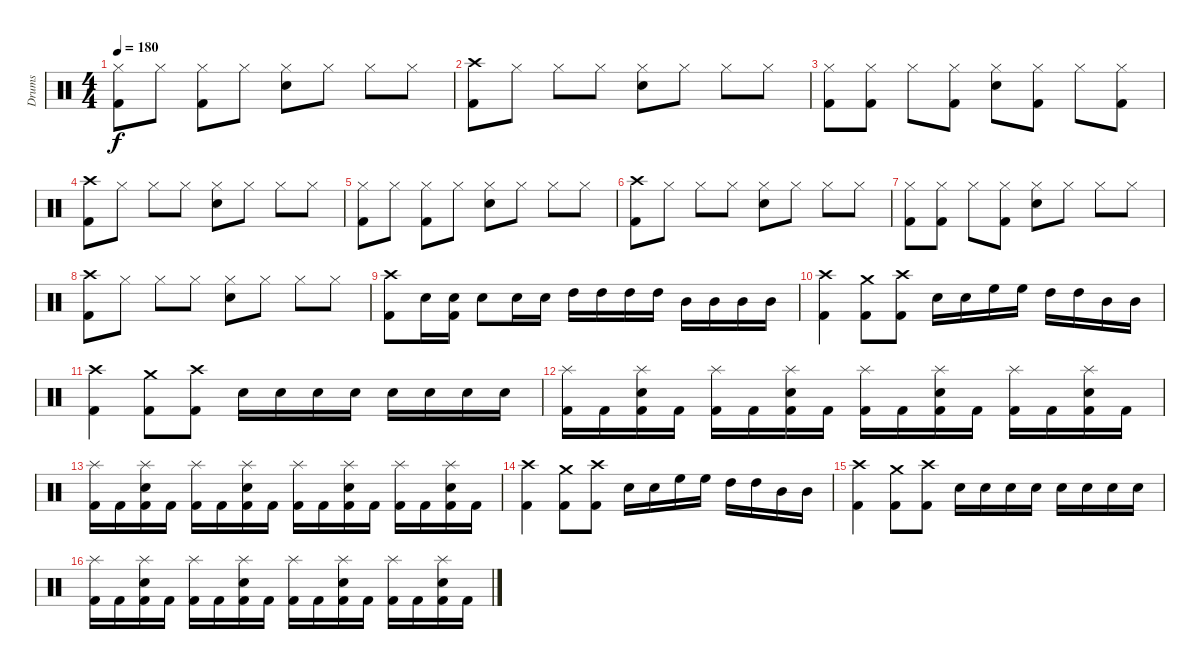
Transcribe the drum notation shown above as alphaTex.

\track ("Drums" "Drums") {instrument percussion}
\staff {score}
\articulation defaults
\ts (4 4)
\tempo 180
\clef neutral
\ks c
("Hi-Hat (closed)" "Kick (hit) 2").8{dy f} "Hi-Hat (closed)".8 ("Hi-Hat (closed)" "Kick (hit) 2").8 "Hi-Hat (closed)".8 ("Hi-Hat (closed)" "Snare (hit) 2").8 "Hi-Hat (closed)".8 "Hi-Hat (closed)".8 "Hi-Hat (closed)".8 |
("Crash high (hit)" "Kick (hit) 2").8 "Hi-Hat (closed)".8 "Hi-Hat (closed)".8 "Hi-Hat (closed)".8 ("Hi-Hat (closed)" "Snare (hit) 2").8 "Hi-Hat (closed)".8 "Hi-Hat (closed)".8 "Hi-Hat (closed)".8 |
("Hi-Hat (closed)" "Kick (hit) 2").8 ("Hi-Hat (closed)" "Kick (hit) 2").8 "Hi-Hat (closed)".8 ("Hi-Hat (closed)" "Kick (hit) 2").8 ("Hi-Hat (closed)" "Snare (hit) 2").8 ("Hi-Hat (closed)" "Kick (hit) 2").8 "Hi-Hat (closed)".8 ("Hi-Hat (closed)" "Kick (hit) 2").8 |
("Crash high (hit)" "Kick (hit) 2").8 "Hi-Hat (closed)".8 "Hi-Hat (closed)".8 "Hi-Hat (closed)".8 ("Hi-Hat (closed)" "Snare (hit) 2").8 "Hi-Hat (closed)".8 "Hi-Hat (closed)".8 "Hi-Hat (closed)".8 |
("Hi-Hat (closed)" "Kick (hit) 2").8 "Hi-Hat (closed)".8 ("Hi-Hat (closed)" "Kick (hit) 2").8 "Hi-Hat (closed)".8 ("Hi-Hat (closed)" "Snare (hit) 2").8 "Hi-Hat (closed)".8 "Hi-Hat (closed)".8 "Hi-Hat (closed)".8 |
("Crash high (hit)" "Kick (hit) 2").8 "Hi-Hat (closed)".8 "Hi-Hat (closed)".8 "Hi-Hat (closed)".8 ("Hi-Hat (closed)" "Snare (hit) 2").8 "Hi-Hat (closed)".8 "Hi-Hat (closed)".8 "Hi-Hat (closed)".8 |
("Hi-Hat (closed)" "Kick (hit) 2").8 ("Hi-Hat (closed)" "Kick (hit) 2").8 "Hi-Hat (closed)".8 ("Hi-Hat (closed)" "Kick (hit) 2").8 ("Hi-Hat (closed)" "Snare (hit) 2").8 "Hi-Hat (closed)".8 "Hi-Hat (closed)".8 "Hi-Hat (closed)".8 |
("Crash high (hit)" "Kick (hit) 2").8 "Hi-Hat (closed)".8 "Hi-Hat (closed)".8 "Hi-Hat (closed)".8 ("Hi-Hat (closed)" "Snare (hit) 2").8 "Hi-Hat (closed)".8 "Hi-Hat (closed)".8 "Hi-Hat (closed)".8 |
("Crash high (hit)" "Kick (hit) 2").8 "Snare (hit) 2".16 ("Snare (hit) 2" "Kick (hit) 2").16 "Snare (hit) 2".8 "Snare (hit) 2".16 "Snare (hit) 2".16 "High Tom (hit)".16 "High Tom (hit)".16 "High Tom (hit)".16 "High Tom (hit)".16 "Mid Tom (hit)".16 "Mid Tom (hit)".16 "Mid Tom (hit)".16 "Mid Tom (hit)".16 |
("Crash high (hit)" "Kick (hit) 2").4 ("Crash medium (hit)" "Kick (hit) 2").8 ("Crash high (hit)" "Kick (hit) 2").8 "Snare (hit) 2".16 "Snare (hit) 2".16 "High Floor Tom (hit)".16 "High Floor Tom (hit)".16 "High Tom (hit)".16 "High Tom (hit)".16 "Mid Tom (hit)".16 "Mid Tom (hit)".16 |
("Crash high (hit)" "Kick (hit) 2").4 ("Crash medium (hit)" "Kick (hit) 2").8 ("Crash high (hit)" "Kick (hit) 2").8 "Snare (hit) 2".16 "Snare (hit) 2".16 "Snare (hit) 2".16 "Snare (hit) 2".16 "Snare (hit) 2".16 "Snare (hit) 2".16 "Snare (hit) 2".16 "Snare (hit) 2".16 |
("Splash (hit)" "Kick (hit) 2").16 "Kick (hit) 2".16 ("Splash (hit)" "Snare (hit) 2" "Kick (hit) 2").16 "Kick (hit) 2".16 ("Splash (hit)" "Kick (hit) 2").16 "Kick (hit) 2".16 ("Splash (hit)" "Snare (hit) 2" "Kick (hit) 2").16 "Kick (hit) 2".16 ("Splash (hit)" "Kick (hit) 2").16 "Kick (hit) 2".16 ("Splash (hit)" "Snare (hit) 2" "Kick (hit) 2").16 "Kick (hit) 2".16 ("Splash (hit)" "Kick (hit) 2").16 "Kick (hit) 2".16 ("Splash (hit)" "Snare (hit) 2" "Kick (hit) 2").16 "Kick (hit) 2".16 |
("Splash (hit)" "Kick (hit) 2").16 "Kick (hit) 2".16 ("Splash (hit)" "Snare (hit) 2" "Kick (hit) 2").16 "Kick (hit) 2".16 ("Splash (hit)" "Kick (hit) 2").16 "Kick (hit) 2".16 ("Splash (hit)" "Snare (hit) 2" "Kick (hit) 2").16 "Kick (hit) 2".16 ("Splash (hit)" "Kick (hit) 2").16 "Kick (hit) 2".16 ("Splash (hit)" "Snare (hit) 2" "Kick (hit) 2").16 "Kick (hit) 2".16 ("Splash (hit)" "Kick (hit) 2").16 "Kick (hit) 2".16 ("Splash (hit)" "Snare (hit) 2" "Kick (hit) 2").16 "Kick (hit) 2".16 |
("Crash high (hit)" "Kick (hit) 2").4 ("Crash medium (hit)" "Kick (hit) 2").8 ("Crash high (hit)" "Kick (hit) 2").8 "Snare (hit) 2".16 "Snare (hit) 2".16 "High Floor Tom (hit)".16 "High Floor Tom (hit)".16 "High Tom (hit)".16 "High Tom (hit)".16 "Mid Tom (hit)".16 "Mid Tom (hit)".16 |
("Crash high (hit)" "Kick (hit) 2").4 ("Crash medium (hit)" "Kick (hit) 2").8 ("Crash high (hit)" "Kick (hit) 2").8 "Snare (hit) 2".16 "Snare (hit) 2".16 "Snare (hit) 2".16 "Snare (hit) 2".16 "Snare (hit) 2".16 "Snare (hit) 2".16 "Snare (hit) 2".16 "Snare (hit) 2".16 |
("Splash (hit)" "Kick (hit) 2").16 "Kick (hit) 2".16 ("Splash (hit)" "Snare (hit) 2" "Kick (hit) 2").16 "Kick (hit) 2".16 ("Splash (hit)" "Kick (hit) 2").16 "Kick (hit) 2".16 ("Splash (hit)" "Snare (hit) 2" "Kick (hit) 2").16 "Kick (hit) 2".16 ("Splash (hit)" "Kick (hit) 2").16 "Kick (hit) 2".16 ("Splash (hit)" "Snare (hit) 2" "Kick (hit) 2").16 "Kick (hit) 2".16 ("Splash (hit)" "Kick (hit) 2").16 "Kick (hit) 2".16 ("Splash (hit)" "Snare (hit) 2" "Kick (hit) 2").16 "Kick (hit) 2".16
